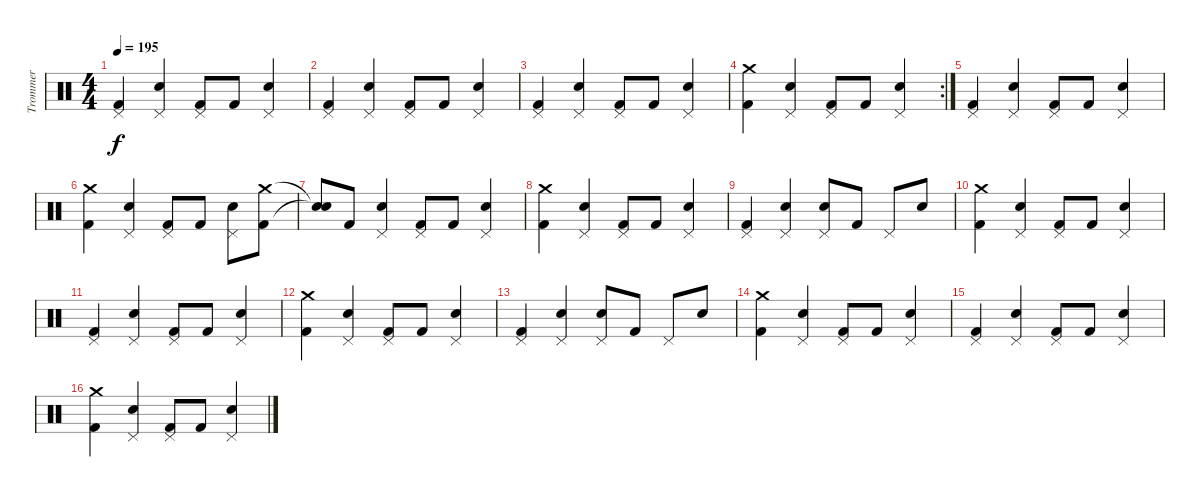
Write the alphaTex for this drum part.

\track ("Trommer" "Trommer") {instrument percussion}
\staff {score}
\articulation defaults
\ts (4 4)
\tempo 195
\clef neutral
\ks c
("Pedal Hi-Hat (hit)" "Kick (hit) 2").4{dy f} ("Pedal Hi-Hat (hit)" "Snare (hit) 2").4 ("Pedal Hi-Hat (hit)" "Kick (hit) 2").8 "Kick (hit) 2".8 ("Pedal Hi-Hat (hit)" "Snare (hit) 2").4 |
("Pedal Hi-Hat (hit)" "Kick (hit) 2").4 ("Pedal Hi-Hat (hit)" "Snare (hit) 2").4 ("Pedal Hi-Hat (hit)" "Kick (hit) 2").8 "Kick (hit) 2".8 ("Pedal Hi-Hat (hit)" "Snare (hit) 2").4 |
("Pedal Hi-Hat (hit)" "Kick (hit) 2").4 ("Pedal Hi-Hat (hit)" "Snare (hit) 2").4 ("Pedal Hi-Hat (hit)" "Kick (hit) 2").8 "Kick (hit) 2".8 ("Pedal Hi-Hat (hit)" "Snare (hit) 2").4 |
\rc 2
("Kick (hit) 2" "Crash medium (hit)").4 ("Pedal Hi-Hat (hit)" "Snare (hit) 2").4 ("Pedal Hi-Hat (hit)" "Kick (hit) 2").8 "Kick (hit) 2".8 ("Pedal Hi-Hat (hit)" "Snare (hit) 2").4 |
("Pedal Hi-Hat (hit)" "Kick (hit) 2").4 ("Pedal Hi-Hat (hit)" "Snare (hit) 2").4 ("Pedal Hi-Hat (hit)" "Kick (hit) 2").8 "Kick (hit) 2".8 ("Pedal Hi-Hat (hit)" "Snare (hit) 2").4 |
("Kick (hit) 2" "Crash medium (hit)").4 ("Pedal Hi-Hat (hit)" "Snare (hit) 2").4 ("Pedal Hi-Hat (hit)" "Kick (hit) 2").8 "Kick (hit) 2".8 ("Pedal Hi-Hat (hit)" "Snare (hit) 2").8 ("Kick (hit) 2" "Crash medium (hit)").8 |
("Snare (hit)"{t} "Snare (hit)"{t}).8 "Kick (hit) 2".8 ("Pedal Hi-Hat (hit)" "Snare (hit) 2").4 ("Pedal Hi-Hat (hit)" "Kick (hit) 2").8 "Kick (hit) 2".8 ("Pedal Hi-Hat (hit)" "Snare (hit) 2").4 |
("Kick (hit) 2" "Crash medium (hit)").4 ("Snare (hit) 2" "Pedal Hi-Hat (hit)").4 ("Pedal Hi-Hat (hit)" "Kick (hit) 2").8 "Kick (hit) 2".8 ("Pedal Hi-Hat (hit)" "Snare (hit) 2").4 |
("Kick (hit) 2" "Pedal Hi-Hat (hit)").4 ("Snare (hit) 2" "Pedal Hi-Hat (hit)").4 ("Pedal Hi-Hat (hit)" "Snare (hit) 2").8 "Kick (hit) 2".8 "Pedal Hi-Hat (hit)".8 "Snare (hit) 2".8 |
("Kick (hit) 2" "Crash medium (hit)").4 ("Pedal Hi-Hat (hit)" "Snare (hit) 2").4 ("Pedal Hi-Hat (hit)" "Kick (hit) 2").8 "Kick (hit) 2".8 ("Snare (hit) 2" "Pedal Hi-Hat (hit)").4 |
("Pedal Hi-Hat (hit)" "Kick (hit) 2").4 ("Pedal Hi-Hat (hit)" "Snare (hit) 2").4 ("Pedal Hi-Hat (hit)" "Kick (hit) 2").8 "Kick (hit) 2".8 ("Pedal Hi-Hat (hit)" "Snare (hit) 2").4 |
("Kick (hit) 2" "Crash medium (hit)").4 ("Snare (hit) 2" "Pedal Hi-Hat (hit)").4 ("Pedal Hi-Hat (hit)" "Kick (hit) 2").8 "Kick (hit) 2".8 ("Snare (hit) 2" "Pedal Hi-Hat (hit)").4 |
("Kick (hit) 2" "Pedal Hi-Hat (hit)").4 ("Snare (hit) 2" "Pedal Hi-Hat (hit)").4 ("Snare (hit) 2" "Pedal Hi-Hat (hit)").8 "Kick (hit) 2".8 "Pedal Hi-Hat (hit)".8 "Snare (hit) 2".8 |
("Kick (hit) 2" "Crash medium (hit)").4 ("Snare (hit) 2" "Pedal Hi-Hat (hit)").4 ("Kick (hit) 2" "Pedal Hi-Hat (hit)").8 "Kick (hit) 2".8 ("Snare (hit) 2" "Pedal Hi-Hat (hit)").4 |
("Kick (hit) 2" "Pedal Hi-Hat (hit)").4 ("Snare (hit) 2" "Pedal Hi-Hat (hit)").4 ("Kick (hit) 2" "Pedal Hi-Hat (hit)").8 "Kick (hit) 2".8 ("Snare (hit) 2" "Pedal Hi-Hat (hit)").4 |
("Kick (hit) 2" "Crash medium (hit)").4 ("Snare (hit) 2" "Pedal Hi-Hat (hit)").4 ("Kick (hit) 2" "Pedal Hi-Hat (hit)").8 "Kick (hit) 2".8 ("Snare (hit) 2" "Pedal Hi-Hat (hit)").4
